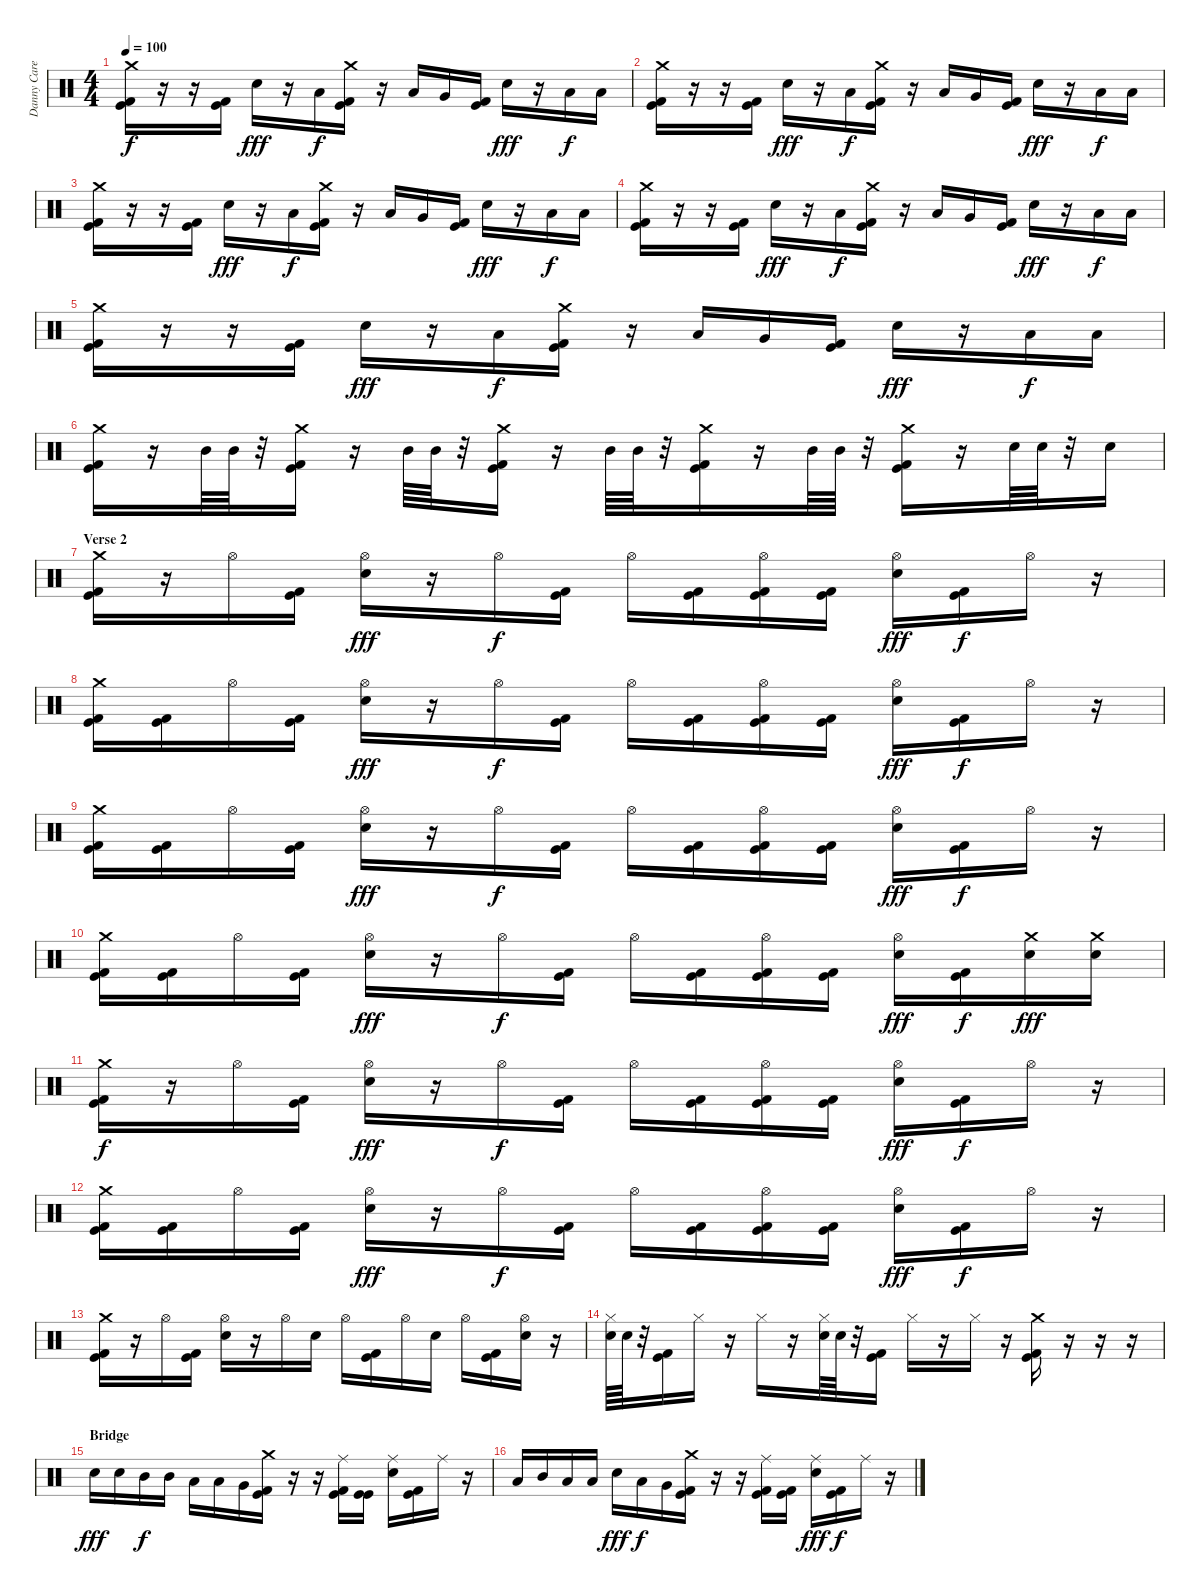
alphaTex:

\track ("Danny Carey - Percussion" "Danny Care") {instrument percussion}
\staff {score}
\articulation defaults
\ts (4 4)
\tempo 100
\clef neutral
\ks c
("Crash medium (hit)" "Kick (hit)" "Kick (hit) 2").16{dy f} r.16 r.16 ("Kick (hit)" "Kick (hit) 2").16 "Electric Snare (hit)".16{dy fff} r.16 "Low Tom (hit)".16{dy f} ("Crash medium (hit)" "Kick (hit)" "Kick (hit) 2").16 r.16 "Low Tom (hit)".16 "Very Low Tom (hit)".16 ("Kick (hit)" "Kick (hit) 2").16 "Electric Snare (hit)".16{dy fff} r.16 "Low Tom (hit)".16{dy f} "Low Tom (hit)".16 |
("Crash medium (hit)" "Kick (hit)" "Kick (hit) 2").16 r.16 r.16 ("Kick (hit)" "Kick (hit) 2").16 "Electric Snare (hit)".16{dy fff} r.16 "Low Tom (hit)".16{dy f} ("Crash medium (hit)" "Kick (hit)" "Kick (hit) 2").16 r.16 "Low Tom (hit)".16 "Very Low Tom (hit)".16 ("Kick (hit)" "Kick (hit) 2").16 "Electric Snare (hit)".16{dy fff} r.16 "Low Tom (hit)".16{dy f} "Low Tom (hit)".16 |
("Crash medium (hit)" "Kick (hit)" "Kick (hit) 2").16 r.16 r.16 ("Kick (hit)" "Kick (hit) 2").16 "Electric Snare (hit)".16{dy fff} r.16 "Low Tom (hit)".16{dy f} ("Crash medium (hit)" "Kick (hit)" "Kick (hit) 2").16 r.16 "Low Tom (hit)".16 "Very Low Tom (hit)".16 ("Kick (hit)" "Kick (hit) 2").16 "Electric Snare (hit)".16{dy fff} r.16 "Low Tom (hit)".16{dy f} "Low Tom (hit)".16 |
("Crash medium (hit)" "Kick (hit)" "Kick (hit) 2").16 r.16 r.16 ("Kick (hit)" "Kick (hit) 2").16 "Electric Snare (hit)".16{dy fff} r.16 "Low Tom (hit)".16{dy f} ("Crash medium (hit)" "Kick (hit)" "Kick (hit) 2").16 r.16 "Low Tom (hit)".16 "Very Low Tom (hit)".16 ("Kick (hit)" "Kick (hit) 2").16 "Electric Snare (hit)".16{dy fff} r.16 "Low Tom (hit)".16{dy f} "Low Tom (hit)".16 |
("Crash medium (hit)" "Kick (hit)" "Kick (hit) 2").16 r.16 r.16 ("Kick (hit)" "Kick (hit) 2").16 "Electric Snare (hit)".16{dy fff} r.16 "Low Tom (hit)".16{dy f} ("Crash medium (hit)" "Kick (hit)" "Kick (hit) 2").16 r.16 "Low Tom (hit)".16 "Very Low Tom (hit)".16 ("Kick (hit)" "Kick (hit) 2").16 "Electric Snare (hit)".16{dy fff} r.16 "Low Tom (hit)".16{dy f} "Low Tom (hit)".16 |
("Crash medium (hit)" "Kick (hit)" "Kick (hit) 2").16 r.16 "Mid Tom (hit)".64 "Mid Tom (hit)".64 r.32 ("Crash medium (hit)" "Kick (hit)" "Kick (hit) 2").16 r.16 "Mid Tom (hit)".64 "Mid Tom (hit)".64 r.32 ("Crash medium (hit)" "Kick (hit)" "Kick (hit) 2").16 r.16 "Mid Tom (hit)".64 "Mid Tom (hit)".64 r.32 ("Crash medium (hit)" "Kick (hit)" "Kick (hit) 2").16 r.16 "Mid Tom (hit)".64 "Mid Tom (hit)".64 r.32 ("Crash medium (hit)" "Kick (hit)" "Kick (hit) 2").16 r.16 "Electric Snare (hit)".64 "Electric Snare (hit)".64 r.32 "Electric Snare (hit)".16 |
\section ("" "Verse 2")
("Crash medium (hit)" "Kick (hit)" "Kick (hit) 2").16 r.16 "Hi-Hat (open)".16 ("Kick (hit)" "Kick (hit) 2").16 ("Hi-Hat (open)" "Electric Snare (hit)").16{dy fff} r.16 "Hi-Hat (open)".16{dy f} ("Kick (hit)" "Kick (hit) 2").16 "Hi-Hat (open)".16 ("Kick (hit)" "Kick (hit) 2").16 ("Hi-Hat (open)" "Kick (hit)" "Kick (hit) 2").16 ("Kick (hit)" "Kick (hit) 2").16 ("Hi-Hat (open)" "Electric Snare (hit)").16{dy fff} ("Kick (hit)" "Kick (hit) 2").16{dy f} "Hi-Hat (open)".16 r.16 |
("Crash medium (hit)" "Kick (hit)" "Kick (hit) 2").16 ("Kick (hit)" "Kick (hit) 2").16 "Hi-Hat (open)".16 ("Kick (hit)" "Kick (hit) 2").16 ("Hi-Hat (open)" "Electric Snare (hit)").16{dy fff} r.16 "Hi-Hat (open)".16{dy f} ("Kick (hit)" "Kick (hit) 2").16 "Hi-Hat (open)".16 ("Kick (hit)" "Kick (hit) 2").16 ("Hi-Hat (open)" "Kick (hit)" "Kick (hit) 2").16 ("Kick (hit)" "Kick (hit) 2").16 ("Hi-Hat (open)" "Electric Snare (hit)").16{dy fff} ("Kick (hit)" "Kick (hit) 2").16{dy f} "Hi-Hat (open)".16 r.16 |
("Crash medium (hit)" "Kick (hit)" "Kick (hit) 2").16 ("Kick (hit)" "Kick (hit) 2").16 "Hi-Hat (open)".16 ("Kick (hit)" "Kick (hit) 2").16 ("Hi-Hat (open)" "Electric Snare (hit)").16{dy fff} r.16 "Hi-Hat (open)".16{dy f} ("Kick (hit)" "Kick (hit) 2").16 "Hi-Hat (open)".16 ("Kick (hit)" "Kick (hit) 2").16 ("Hi-Hat (open)" "Kick (hit)" "Kick (hit) 2").16 ("Kick (hit)" "Kick (hit) 2").16 ("Hi-Hat (open)" "Electric Snare (hit)").16{dy fff} ("Kick (hit)" "Kick (hit) 2").16{dy f} "Hi-Hat (open)".16 r.16 |
("Crash medium (hit)" "Kick (hit)" "Kick (hit) 2").16 ("Kick (hit)" "Kick (hit) 2").16 "Hi-Hat (open)".16 ("Kick (hit)" "Kick (hit) 2").16 ("Hi-Hat (open)" "Electric Snare (hit)").16{dy fff} r.16 "Hi-Hat (open)".16{dy f} ("Kick (hit)" "Kick (hit) 2").16 "Hi-Hat (open)".16 ("Kick (hit)" "Kick (hit) 2").16 ("Hi-Hat (open)" "Kick (hit)" "Kick (hit) 2").16 ("Kick (hit)" "Kick (hit) 2").16 ("Hi-Hat (open)" "Electric Snare (hit)").16{dy fff} ("Kick (hit)" "Kick (hit) 2").16{dy f} ("Crash medium (hit)" "Electric Snare (hit)").16{dy fff} ("Crash medium (hit)" "Electric Snare (hit)").16 |
("Crash medium (hit)" "Kick (hit)" "Kick (hit) 2").16{dy f} r.16 "Hi-Hat (open)".16 ("Kick (hit)" "Kick (hit) 2").16 ("Hi-Hat (open)" "Electric Snare (hit)").16{dy fff} r.16 "Hi-Hat (open)".16{dy f} ("Kick (hit)" "Kick (hit) 2").16 "Hi-Hat (open)".16 ("Kick (hit)" "Kick (hit) 2").16 ("Hi-Hat (open)" "Kick (hit)" "Kick (hit) 2").16 ("Kick (hit)" "Kick (hit) 2").16 ("Hi-Hat (open)" "Electric Snare (hit)").16{dy fff} ("Kick (hit)" "Kick (hit) 2").16{dy f} "Hi-Hat (open)".16 r.16 |
("Crash medium (hit)" "Kick (hit)" "Kick (hit) 2").16 ("Kick (hit)" "Kick (hit) 2").16 "Hi-Hat (open)".16 ("Kick (hit)" "Kick (hit) 2").16 ("Hi-Hat (open)" "Electric Snare (hit)").16{dy fff} r.16 "Hi-Hat (open)".16{dy f} ("Kick (hit)" "Kick (hit) 2").16 "Hi-Hat (open)".16 ("Kick (hit)" "Kick (hit) 2").16 ("Hi-Hat (open)" "Kick (hit)" "Kick (hit) 2").16 ("Kick (hit)" "Kick (hit) 2").16 ("Hi-Hat (open)" "Electric Snare (hit)").16{dy fff} ("Kick (hit)" "Kick (hit) 2").16{dy f} "Hi-Hat (open)".16 r.16 |
("Crash medium (hit)" "Kick (hit)" "Kick (hit) 2").16 r.16 "Hi-Hat (open)".16 ("Kick (hit)" "Kick (hit) 2").16 ("Hi-Hat (open)" "Electric Snare (hit)").16 r.16 "Hi-Hat (open)".16 "Electric Snare (hit)".16 "Hi-Hat (open)".16 ("Kick (hit)" "Kick (hit) 2").16 "Hi-Hat (open)".16 "Electric Snare (hit)".16 "Hi-Hat (open)".16 ("Kick (hit)" "Kick (hit) 2").16 ("Hi-Hat (open)" "Electric Snare (hit)").16 r.16 |
("Hi-Hat (closed)" "Electric Snare (hit)").64 "Electric Snare (hit)".64 r.32 ("Kick (hit)" "Kick (hit) 2").16 "Hi-Hat (closed)".16 r.16 "Hi-Hat (closed)".16 r.16 ("Hi-Hat (closed)" "Electric Snare (hit)").64 "Electric Snare (hit)".64 r.32 ("Kick (hit)" "Kick (hit) 2").16 "Hi-Hat (closed)".16 r.16 "Hi-Hat (closed)".16 r.16 ("Crash medium (hit)" "Kick (hit)" "Kick (hit) 2").16 r.16 r.16 r.16 |
\section ("" "Bridge")
"Electric Snare (hit)".16{dy fff} "Electric Snare (hit)".16 "Mid Tom (hit)".16{dy f} "Mid Tom (hit)".16 "Low Tom (hit)".16 "Low Tom (hit)".16 "Very Low Tom (hit)".16 ("Crash medium (hit)" "Kick (hit)" "Kick (hit) 2").16 r.16 r.16 ("Ride (middle)" "Kick (hit)" "Kick (hit) 2").16 ("Kick (hit)" "Kick (hit)").16 ("Ride (middle)" "Electric Snare (hit)").16 ("Kick (hit)" "Kick (hit) 2").16 "Ride (middle)".16 r.16 |
"Low Tom (hit)".16 "Mid Tom (hit)".16 "Low Tom (hit)".16 "Low Tom (hit)".16 "Electric Snare (hit)".16{dy fff} "Low Tom (hit)".16{dy f} "Very Low Tom (hit)".16 ("Crash medium (hit)" "Kick (hit)" "Kick (hit) 2").16 r.16 r.16 ("Ride (middle)" "Kick (hit)" "Kick (hit) 2").16 ("Kick (hit)" "Kick (hit) 2").16 ("Ride (middle)" "Electric Snare (hit)").16{dy fff} ("Kick (hit)" "Kick (hit) 2").16{dy f} "Ride (middle)".16 r.16
